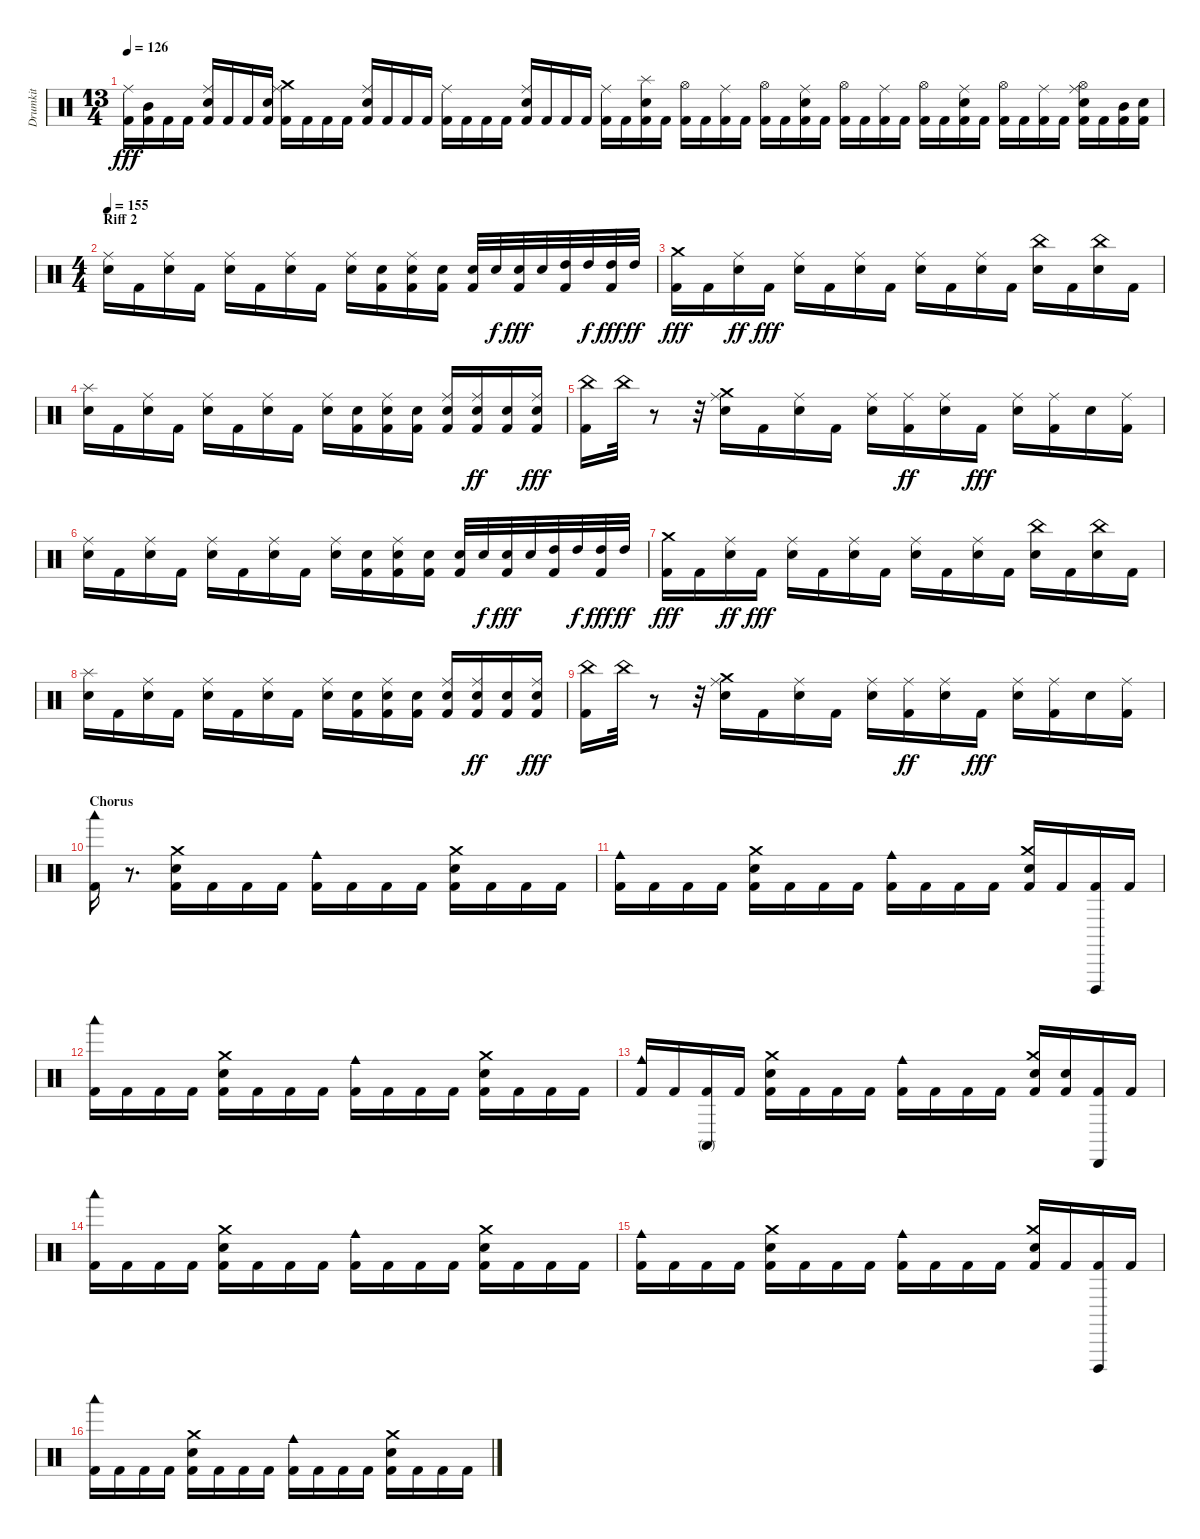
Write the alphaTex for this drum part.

\track ("Drumkit" "Drumkit") {instrument percussion}
\staff {score}
\articulation defaults
\ts (13 4)
\tempo 126
\clef neutral
\ks c
("Kick (hit) 2" "Ride (middle)").16{dy fff} ("Kick (hit) 2" "Mid Tom (hit)").16 "Kick (hit) 2".16 "Kick (hit) 2".16 ("Kick (hit) 2" "Snare (hit) 2" "Ride (middle)").16 "Kick (hit) 2".16 "Kick (hit) 2".16 ("Kick (hit) 2" "Snare (hit) 2").16 ("Kick (hit) 2" "Ride (middle)" "Crash medium (hit)").16 "Kick (hit) 2".16 "Kick (hit) 2".16 "Kick (hit) 2".16 ("Kick (hit) 2" "Snare (hit) 2" "Ride (middle)").16 "Kick (hit) 2".16 "Kick (hit) 2".16 "Kick (hit) 2".16 ("Kick (hit) 2" "Ride (middle)").16 "Kick (hit) 2".16 "Kick (hit) 2".16 "Kick (hit) 2".16 ("Kick (hit) 2" "Snare (hit) 2" "Ride (middle)").16 "Kick (hit) 2".16 "Kick (hit) 2".16 "Kick (hit) 2".16 ("Kick (hit) 2" "Ride (middle)").16 "Kick (hit) 2".16 ("Kick (hit) 2" "Snare (hit) 2" "Splash (hit)").16 "Kick (hit) 2".16 ("Kick (hit) 2" "Hi-Hat (open)").16 "Kick (hit) 2".16 ("Kick (hit) 2" "Ride (middle)").16 "Kick (hit) 2".16 ("Kick (hit) 2" "Hi-Hat (open)").16 "Kick (hit) 2".16 ("Kick (hit) 2" "Snare (hit) 2" "Ride (middle)").16 "Kick (hit) 2".16 ("Kick (hit) 2" "Hi-Hat (open)").16 "Kick (hit) 2".16 ("Kick (hit) 2" "Ride (middle)").16 "Kick (hit) 2".16 ("Kick (hit) 2" "Hi-Hat (open)").16 "Kick (hit) 2".16 ("Kick (hit) 2" "Snare (hit) 2" "Ride (middle)").16 "Kick (hit) 2".16 ("Kick (hit) 2" "Hi-Hat (open)").16 "Kick (hit) 2".16 ("Kick (hit) 2" "Ride (middle)").16 "Kick (hit) 2".16 ("Kick (hit) 2" "Snare (hit) 2" "Hi-Hat (open)" "Ride (middle)").16 "Kick (hit) 2".16 ("Kick (hit) 2" "Mid Tom (hit)").16 ("Kick (hit) 2" "Snare (hit) 2").16 |
\ts (4 4)
\section ("" "Riff 2")
\tempo 155
("Snare (hit) 2" "Ride (middle)").16 "Kick (hit) 2".16 ("Snare (hit) 2" "Ride (middle)").16 "Kick (hit) 2".16 ("Snare (hit) 2" "Ride (middle)").16 "Kick (hit) 2".16 ("Snare (hit) 2" "Ride (middle)").16 "Kick (hit) 2".16 ("Snare (hit) 2" "Ride (middle)").16 ("Kick (hit) 2" "Snare (hit) 2").16 ("Kick (hit) 2" "Snare (hit) 2" "Ride (middle)").16 ("Kick (hit) 2" "Snare (hit) 2").16 ("Kick (hit) 2" "Snare (hit) 2").32 "Snare (hit) 2".32{dy f} ("Kick (hit) 2" "Snare (hit) 2").32{dy fff} "Snare (hit) 2".32 ("Kick (hit) 2" "High Tom (hit)").32 "High Tom (hit)".32{dy f} ("Kick (hit) 2" "High Tom (hit)").32{dy fff} "High Tom (hit)".32{dy ff} |
("Kick (hit) 2" "Crash medium (hit)").16{dy fff} "Kick (hit) 2".16 ("Snare (hit) 2" "Ride (middle)").16{dy ff} "Kick (hit) 2".16{dy fff} ("Snare (hit) 2" "Ride (middle)").16 "Kick (hit) 2".16 ("Snare (hit) 2" "Ride (middle)").16 "Kick (hit) 2".16 ("Snare (hit) 2" "Ride (middle)").16 "Kick (hit) 2".16 ("Snare (hit) 2" "Ride (middle)").16 "Kick (hit) 2".16 ("Snare (hit) 2" "China (hit)").16 "Kick (hit) 2".16 ("Snare (hit) 2" "China (hit)").16 "Kick (hit) 2".16 |
("Snare (hit) 2" "Splash (hit)").16 "Kick (hit) 2".16 ("Snare (hit) 2" "Ride (middle)").16 "Kick (hit) 2".16 ("Snare (hit) 2" "Ride (middle)").16 "Kick (hit) 2".16 ("Snare (hit) 2" "Ride (middle)").16 "Kick (hit) 2".16 ("Snare (hit) 2" "Ride (middle)").16 ("Kick (hit) 2" "Snare (hit) 2").16 ("Kick (hit) 2" "Snare (hit) 2" "Ride (middle)").16 ("Kick (hit) 2" "Snare (hit) 2").16 ("Kick (hit) 2" "Snare (hit) 2" "Ride (middle)").16 ("Kick (hit) 2" "Snare (hit) 2" "Ride (middle)").16{dy ff} ("Kick (hit) 2" "Snare (hit) 2").16 ("Kick (hit) 2" "Snare (hit) 2" "Ride (middle)").16{dy fff} |
("Kick (hit) 2" "China (hit)").16 "China (hit)".32 r.8 r.32 ("Snare (hit) 2" "Ride (middle)" "Crash medium (hit)").16 "Kick (hit) 2".16 ("Snare (hit) 2" "Ride (middle)").16 "Kick (hit) 2".16 ("Snare (hit) 2" "Ride (middle)").16 ("Kick (hit) 2" "Ride (middle)").16{dy ff} ("Snare (hit) 2" "Ride (middle)").16 "Kick (hit) 2".16{dy fff} ("Snare (hit) 2" "Ride (middle)").16 ("Kick (hit) 2" "Ride (middle)").16 "Snare (hit) 2".16 ("Kick (hit) 2" "Ride (middle)").16 |
("Snare (hit) 2" "Ride (middle)").16 "Kick (hit) 2".16 ("Snare (hit) 2" "Ride (middle)").16 "Kick (hit) 2".16 ("Snare (hit) 2" "Ride (middle)").16 "Kick (hit) 2".16 ("Snare (hit) 2" "Ride (middle)").16 "Kick (hit) 2".16 ("Snare (hit) 2" "Ride (middle)").16 ("Kick (hit) 2" "Snare (hit) 2").16 ("Kick (hit) 2" "Snare (hit) 2" "Ride (middle)").16 ("Kick (hit) 2" "Snare (hit) 2").16 ("Kick (hit) 2" "Snare (hit) 2").32 "Snare (hit) 2".32{dy f} ("Kick (hit) 2" "Snare (hit) 2").32{dy fff} "Snare (hit) 2".32 ("Kick (hit) 2" "High Tom (hit)").32 "High Tom (hit)".32{dy f} ("Kick (hit) 2" "High Tom (hit)").32{dy fff} "High Tom (hit)".32{dy ff} |
("Kick (hit) 2" "Crash medium (hit)").16{dy fff} "Kick (hit) 2".16 ("Snare (hit) 2" "Ride (middle)").16{dy ff} "Kick (hit) 2".16{dy fff} ("Snare (hit) 2" "Ride (middle)").16 "Kick (hit) 2".16 ("Snare (hit) 2" "Ride (middle)").16 "Kick (hit) 2".16 ("Snare (hit) 2" "Ride (middle)").16 "Kick (hit) 2".16 ("Snare (hit) 2" "Ride (middle)").16 "Kick (hit) 2".16 ("Snare (hit) 2" "China (hit)").16 "Kick (hit) 2".16 ("Snare (hit) 2" "China (hit)").16 "Kick (hit) 2".16 |
("Snare (hit) 2" "Splash (hit)").16 "Kick (hit) 2".16 ("Snare (hit) 2" "Ride (middle)").16 "Kick (hit) 2".16 ("Snare (hit) 2" "Ride (middle)").16 "Kick (hit) 2".16 ("Snare (hit) 2" "Ride (middle)").16 "Kick (hit) 2".16 ("Snare (hit) 2" "Ride (middle)").16 ("Kick (hit) 2" "Snare (hit) 2").16 ("Kick (hit) 2" "Snare (hit) 2" "Ride (middle)").16 ("Kick (hit) 2" "Snare (hit) 2").16 ("Kick (hit) 2" "Snare (hit) 2" "Ride (middle)").16 ("Kick (hit) 2" "Snare (hit) 2" "Ride (middle)").16{dy ff} ("Kick (hit) 2" "Snare (hit) 2").16 ("Kick (hit) 2" "Snare (hit) 2" "Ride (middle)").16{dy fff} |
("Kick (hit) 2" "China (hit)").16 "China (hit)".32 r.8 r.32 ("Snare (hit) 2" "Ride (middle)" "Crash medium (hit)").16 "Kick (hit) 2".16 ("Snare (hit) 2" "Ride (middle)").16 "Kick (hit) 2".16 ("Snare (hit) 2" "Ride (middle)").16 ("Kick (hit) 2" "Ride (middle)").16{dy ff} ("Snare (hit) 2" "Ride (middle)").16 "Kick (hit) 2".16{dy fff} ("Snare (hit) 2" "Ride (middle)").16 ("Kick (hit) 2" "Ride (middle)").16 "Snare (hit) 2".16 ("Kick (hit) 2" "Ride (middle)").16 |
\section ("" "Chorus")
("Kick (hit) 2" "Woodblock low (hit)").16 r.8{d} ("Kick (hit) 2" "Snare (hit) 2" "Crash medium (hit)").16 "Kick (hit) 2".16 "Kick (hit) 2".16 "Kick (hit) 2".16 ("Kick (hit) 2" "Cowbell medium (hit)").16 "Kick (hit) 2".16 "Kick (hit) 2".16 "Kick (hit) 2".16 ("Kick (hit) 2" "Snare (hit) 2" "Crash medium (hit)").16 "Kick (hit) 2".16 "Kick (hit) 2".16 "Kick (hit) 2".16 |
("Kick (hit) 2" "Cowbell medium (hit)").16 "Kick (hit) 2".16 "Kick (hit) 2".16 "Kick (hit) 2".16 ("Kick (hit) 2" "Snare (hit) 2" "Crash medium (hit)").16 "Kick (hit) 2".16 "Kick (hit) 2".16 "Kick (hit) 2".16 ("Kick (hit) 2" "Cowbell medium (hit)").16 "Kick (hit) 2".16 "Kick (hit) 2".16 "Kick (hit) 2".16 ("Kick (hit) 2" "Snare (hit) 2" "Crash medium (hit)").16 "Kick (hit) 2".16 ("Kick (hit) 2" "Cuica (open)").16 "Kick (hit) 2".16 |
("Kick (hit) 2" "Woodblock low (hit)").16 "Kick (hit) 2".16 "Kick (hit) 2".16 "Kick (hit) 2".16 ("Kick (hit) 2" "Snare (hit) 2" "Crash medium (hit)").16 "Kick (hit) 2".16 "Kick (hit) 2".16 "Kick (hit) 2".16 ("Kick (hit) 2" "Cowbell medium (hit)").16 "Kick (hit) 2".16 "Kick (hit) 2".16 "Kick (hit) 2".16 ("Kick (hit) 2" "Snare (hit) 2" "Crash medium (hit)").16 "Kick (hit) 2".16 "Kick (hit) 2".16 "Kick (hit) 2".16 |
("Kick (hit) 2" "Cowbell medium (hit)").16 "Kick (hit) 2".16 ("Kick (hit) 2" "Conga high (mute)").16 "Kick (hit) 2".16 ("Kick (hit) 2" "Snare (hit) 2" "Crash medium (hit)").16 "Kick (hit) 2".16 "Kick (hit) 2".16 "Kick (hit) 2".16 ("Kick (hit) 2" "Cowbell medium (hit)").16 "Kick (hit) 2".16 "Kick (hit) 2".16 "Kick (hit) 2".16 ("Kick (hit) 2" "Snare (hit) 2" "Crash medium (hit)").16 ("Kick (hit) 2" "Snare (hit) 2").16 ("Kick (hit) 2" "Cabasa (hit)").16 "Kick (hit) 2".16 |
("Kick (hit) 2" "Woodblock low (hit)").16 "Kick (hit) 2".16 "Kick (hit) 2".16 "Kick (hit) 2".16 ("Kick (hit) 2" "Snare (hit) 2" "Crash medium (hit)").16 "Kick (hit) 2".16 "Kick (hit) 2".16 "Kick (hit) 2".16 ("Kick (hit) 2" "Cowbell medium (hit)").16 "Kick (hit) 2".16 "Kick (hit) 2".16 "Kick (hit) 2".16 ("Kick (hit) 2" "Snare (hit) 2" "Crash medium (hit)").16 "Kick (hit) 2".16 "Kick (hit) 2".16 "Kick (hit) 2".16 |
("Kick (hit) 2" "Cowbell medium (hit)").16 "Kick (hit) 2".16 "Kick (hit) 2".16 "Kick (hit) 2".16 ("Kick (hit) 2" "Snare (hit) 2" "Crash medium (hit)").16 "Kick (hit) 2".16 "Kick (hit) 2".16 "Kick (hit) 2".16 ("Kick (hit) 2" "Cowbell medium (hit)").16 "Kick (hit) 2".16 "Kick (hit) 2".16 "Kick (hit) 2".16 ("Kick (hit) 2" "Snare (hit) 2" "Crash medium (hit)").16 "Kick (hit) 2".16 ("Kick (hit) 2" "Cuica (open)").16 "Kick (hit) 2".16 |
("Kick (hit) 2" "Woodblock low (hit)").16 "Kick (hit) 2".16 "Kick (hit) 2".16 "Kick (hit) 2".16 ("Kick (hit) 2" "Snare (hit) 2" "Crash medium (hit)").16 "Kick (hit) 2".16 "Kick (hit) 2".16 "Kick (hit) 2".16 ("Kick (hit) 2" "Cowbell medium (hit)").16 "Kick (hit) 2".16 "Kick (hit) 2".16 "Kick (hit) 2".16 ("Kick (hit) 2" "Snare (hit) 2" "Crash medium (hit)").16 "Kick (hit) 2".16 "Kick (hit) 2".16 "Kick (hit) 2".16
